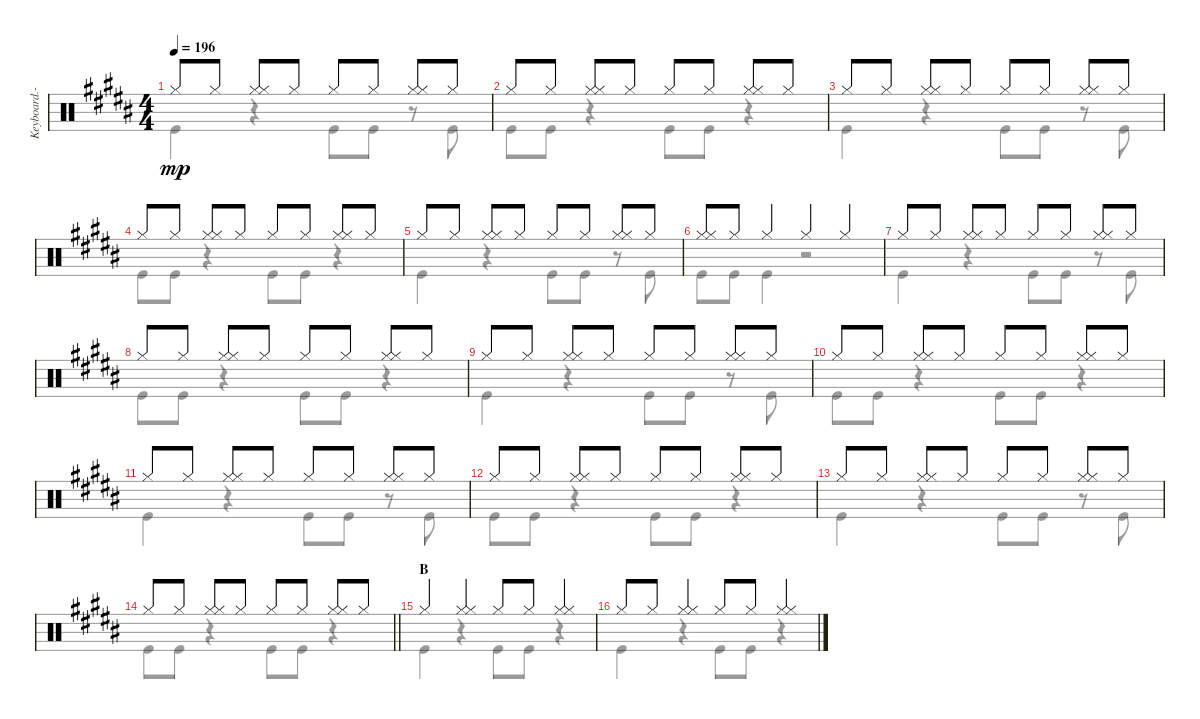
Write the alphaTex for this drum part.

\track ("Keyboard.-III" "Keyboard.-") {instrument percussion}
\staff {score}
\articulation defaults
\voice
\ts (4 4)
\tempo 196
\clef neutral
\ks b "Hi-Hat (closed)".8{dy mp} "Hi-Hat (closed)".8
("Hi-Hat (closed)" "Hi-Hat (closed)").8 "Hi-Hat (closed)".8 "Hi-Hat (closed)".8 "Hi-Hat (closed)".8 ("Hi-Hat (closed)" "Hi-Hat (closed)").8 "Hi-Hat (closed)".8 |
"Hi-Hat (closed)".8 "Hi-Hat (closed)".8 ("Hi-Hat (closed)" "Hi-Hat (closed)").8 "Hi-Hat (closed)".8 "Hi-Hat (closed)".8 "Hi-Hat (closed)".8 ("Hi-Hat (closed)" "Hi-Hat (closed)").8 "Hi-Hat (closed)".8 |
"Hi-Hat (closed)".8 "Hi-Hat (closed)".8 ("Hi-Hat (closed)" "Hi-Hat (closed)").8 "Hi-Hat (closed)".8 "Hi-Hat (closed)".8 "Hi-Hat (closed)".8 ("Hi-Hat (closed)" "Hi-Hat (closed)").8 "Hi-Hat (closed)".8 |
"Hi-Hat (closed)".8 "Hi-Hat (closed)".8 ("Hi-Hat (closed)" "Hi-Hat (closed)").8 "Hi-Hat (closed)".8 "Hi-Hat (closed)".8 "Hi-Hat (closed)".8 ("Hi-Hat (closed)" "Hi-Hat (closed)").8 "Hi-Hat (closed)".8 |
"Hi-Hat (closed)".8 "Hi-Hat (closed)".8 ("Hi-Hat (closed)" "Hi-Hat (closed)").8 "Hi-Hat (closed)".8 "Hi-Hat (closed)".8 "Hi-Hat (closed)".8 ("Hi-Hat (closed)" "Hi-Hat (closed)").8 "Hi-Hat (closed)".8 |
("Hi-Hat (closed)" "Hi-Hat (closed)").8 "Hi-Hat (closed)".8 "Hi-Hat (closed)".4 "Hi-Hat (closed)".4 "Hi-Hat (closed)".4 |
"Hi-Hat (closed)".8 "Hi-Hat (closed)".8 ("Hi-Hat (closed)" "Hi-Hat (closed)").8 "Hi-Hat (closed)".8 "Hi-Hat (closed)".8 "Hi-Hat (closed)".8 ("Hi-Hat (closed)" "Hi-Hat (closed)").8 "Hi-Hat (closed)".8 |
"Hi-Hat (closed)".8 "Hi-Hat (closed)".8 ("Hi-Hat (closed)" "Hi-Hat (closed)").8 "Hi-Hat (closed)".8 "Hi-Hat (closed)".8 "Hi-Hat (closed)".8 ("Hi-Hat (closed)" "Hi-Hat (closed)").8 "Hi-Hat (closed)".8 |
"Hi-Hat (closed)".8 "Hi-Hat (closed)".8 ("Hi-Hat (closed)" "Hi-Hat (closed)").8 "Hi-Hat (closed)".8 "Hi-Hat (closed)".8 "Hi-Hat (closed)".8 ("Hi-Hat (closed)" "Hi-Hat (closed)").8 "Hi-Hat (closed)".8 |
"Hi-Hat (closed)".8 "Hi-Hat (closed)".8 ("Hi-Hat (closed)" "Hi-Hat (closed)").8 "Hi-Hat (closed)".8 "Hi-Hat (closed)".8 "Hi-Hat (closed)".8 ("Hi-Hat (closed)" "Hi-Hat (closed)").8 "Hi-Hat (closed)".8 |
"Hi-Hat (closed)".8 "Hi-Hat (closed)".8 ("Hi-Hat (closed)" "Hi-Hat (closed)").8 "Hi-Hat (closed)".8 "Hi-Hat (closed)".8 "Hi-Hat (closed)".8 ("Hi-Hat (closed)" "Hi-Hat (closed)").8 "Hi-Hat (closed)".8 |
"Hi-Hat (closed)".8 "Hi-Hat (closed)".8 ("Hi-Hat (closed)" "Hi-Hat (closed)").8 "Hi-Hat (closed)".8 "Hi-Hat (closed)".8 "Hi-Hat (closed)".8 ("Hi-Hat (closed)" "Hi-Hat (closed)").8 "Hi-Hat (closed)".8 |
"Hi-Hat (closed)".8 "Hi-Hat (closed)".8 ("Hi-Hat (closed)" "Hi-Hat (closed)").8 "Hi-Hat (closed)".8 "Hi-Hat (closed)".8 "Hi-Hat (closed)".8 ("Hi-Hat (closed)" "Hi-Hat (closed)").8 "Hi-Hat (closed)".8 |
\barLineRight lightlight "Hi-Hat (closed)".8 "Hi-Hat (closed)".8
("Hi-Hat (closed)" "Hi-Hat (closed)").8 "Hi-Hat (closed)".8 "Hi-Hat (closed)".8 "Hi-Hat (closed)".8 ("Hi-Hat (closed)" "Hi-Hat (closed)").8 "Hi-Hat (closed)".8 |
\section ("" "B")
"Hi-Hat (closed)".4 ("Hi-Hat (closed)" "Hi-Hat (closed)").4 "Hi-Hat (closed)".8 "Hi-Hat (closed)".8 ("Hi-Hat (closed)" "Hi-Hat (closed)").4 |
"Hi-Hat (closed)".8 "Hi-Hat (closed)".8 ("Hi-Hat (closed)" "Hi-Hat (closed)").4 "Hi-Hat (closed)".8 "Hi-Hat (closed)".8 ("Hi-Hat (closed)" "Hi-Hat (closed)").4
\voice
\clef neutral
\ottava regular
\simile none
\ks b "Kick (hit)".4{dy mp}
r.4 "Kick (hit)".8 "Kick (hit)".8 r.8 "Kick (hit)".8 |
"Kick (hit)".8 "Kick (hit)".8 r.4 "Kick (hit)".8 "Kick (hit)".8 r.4 |
"Kick (hit)".4 r.4 "Kick (hit)".8 "Kick (hit)".8 r.8 "Kick (hit)".8 |
"Kick (hit)".8 "Kick (hit)".8 r.4 "Kick (hit)".8 "Kick (hit)".8 r.4 |
"Kick (hit)".4 r.4 "Kick (hit)".8 "Kick (hit)".8 r.8 "Kick (hit)".8 |
"Kick (hit)".8 "Kick (hit)".8 "Kick (hit)".4 r.2 |
"Kick (hit)".4 r.4 "Kick (hit)".8 "Kick (hit)".8 r.8 "Kick (hit)".8 |
"Kick (hit)".8 "Kick (hit)".8 r.4 "Kick (hit)".8 "Kick (hit)".8 r.4 |
"Kick (hit)".4 r.4 "Kick (hit)".8 "Kick (hit)".8 r.8 "Kick (hit)".8 |
"Kick (hit)".8 "Kick (hit)".8 r.4 "Kick (hit)".8 "Kick (hit)".8 r.4 |
"Kick (hit)".4 r.4 "Kick (hit)".8 "Kick (hit)".8 r.8 "Kick (hit)".8 |
"Kick (hit)".8 "Kick (hit)".8 r.4 "Kick (hit)".8 "Kick (hit)".8 r.4 |
"Kick (hit)".4 r.4 "Kick (hit)".8 "Kick (hit)".8 r.8 "Kick (hit)".8 |
\barLineRight lightlight "Kick (hit)".8 "Kick (hit)".8
r.4 "Kick (hit)".8 "Kick (hit)".8 r.4 |
"Kick (hit)".4 r.4 "Kick (hit)".8 "Kick (hit)".8 r.4 |
"Kick (hit)".4 r.4 "Kick (hit)".8 "Kick (hit)".8 r.4
